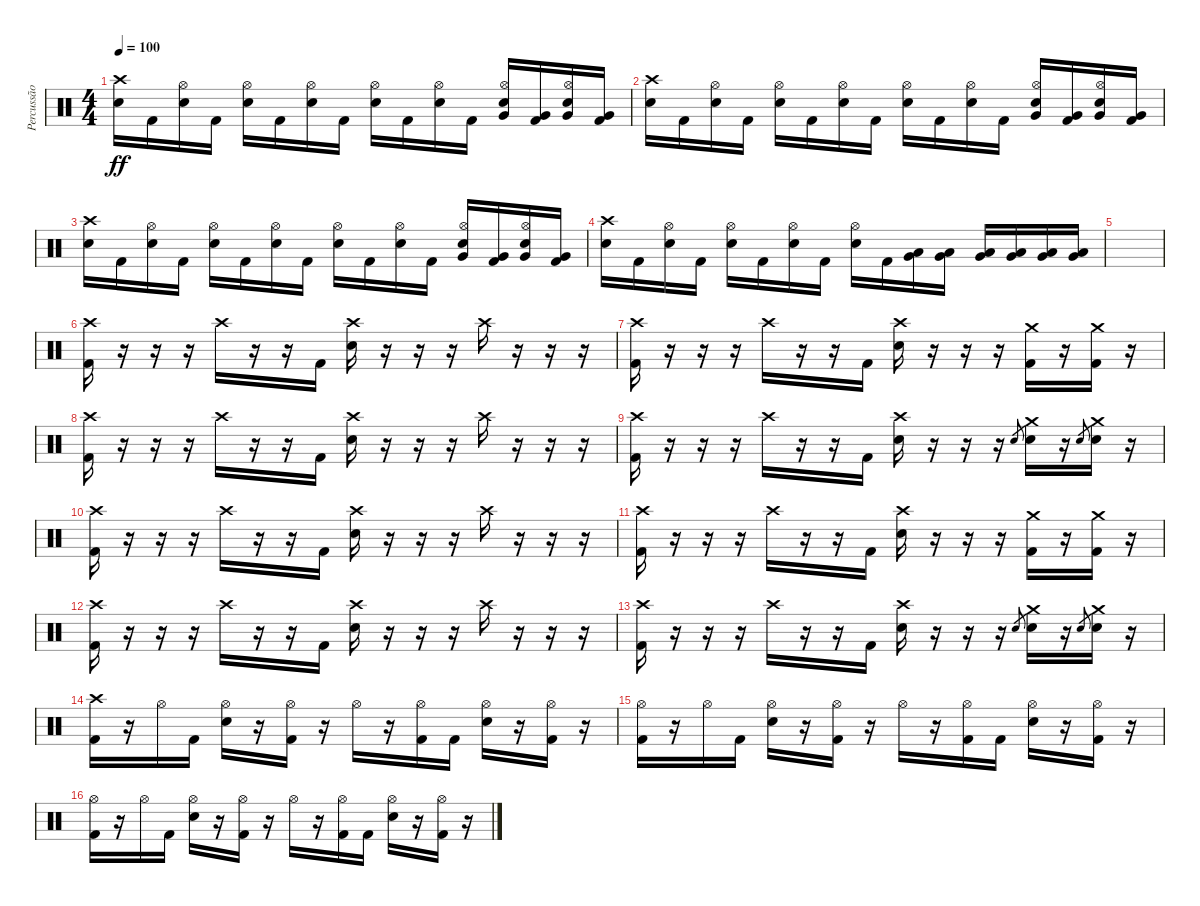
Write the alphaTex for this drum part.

\track ("Percussão" "Percussão") {instrument percussion}
\staff {score}
\articulation defaults
\ts (4 4)
\tempo 100
\clef neutral
\ks c
("Crash high (hit)" "Electric Snare (hit)").16{dy ff} "Kick (hit) 2".16 ("Hi-Hat (open)" "Electric Snare (hit)").16 "Kick (hit) 2".16 ("Hi-Hat (open)" "Electric Snare (hit)").16 "Kick (hit) 2".16 ("Hi-Hat (open)" "Electric Snare (hit)").16 "Kick (hit) 2".16 ("Hi-Hat (open)" "Electric Snare (hit)").16 "Kick (hit) 2".16 ("Hi-Hat (open)" "Electric Snare (hit)").16 "Kick (hit) 2".16 ("Hi-Hat (open)" "Electric Snare (hit)" "Very Low Tom (hit)").16 ("Kick (hit) 2" "Very Low Tom (hit)").16 ("Hi-Hat (open)" "Electric Snare (hit)" "Very Low Tom (hit)").16 ("Kick (hit) 2" "Very Low Tom (hit)").16 |
("Crash high (hit)" "Electric Snare (hit)").16 "Kick (hit) 2".16 ("Hi-Hat (open)" "Electric Snare (hit)").16 "Kick (hit) 2".16 ("Hi-Hat (open)" "Electric Snare (hit)").16 "Kick (hit) 2".16 ("Hi-Hat (open)" "Electric Snare (hit)").16 "Kick (hit) 2".16 ("Hi-Hat (open)" "Electric Snare (hit)").16 "Kick (hit) 2".16 ("Hi-Hat (open)" "Electric Snare (hit)").16 "Kick (hit) 2".16 ("Hi-Hat (open)" "Electric Snare (hit)" "Very Low Tom (hit)").16 ("Kick (hit) 2" "Very Low Tom (hit)").16 ("Hi-Hat (open)" "Electric Snare (hit)" "Very Low Tom (hit)").16 ("Kick (hit) 2" "Very Low Tom (hit)").16 |
("Crash high (hit)" "Electric Snare (hit)").16 "Kick (hit) 2".16 ("Hi-Hat (open)" "Electric Snare (hit)").16 "Kick (hit) 2".16 ("Hi-Hat (open)" "Electric Snare (hit)").16 "Kick (hit) 2".16 ("Hi-Hat (open)" "Electric Snare (hit)").16 "Kick (hit) 2".16 ("Hi-Hat (open)" "Electric Snare (hit)").16 "Kick (hit) 2".16 ("Hi-Hat (open)" "Electric Snare (hit)").16 "Kick (hit) 2".16 ("Hi-Hat (open)" "Electric Snare (hit)" "Very Low Tom (hit)").16 ("Kick (hit) 2" "Very Low Tom (hit)").16 ("Hi-Hat (open)" "Electric Snare (hit)" "Very Low Tom (hit)").16 ("Kick (hit) 2" "Very Low Tom (hit)").16 |
("Crash high (hit)" "Electric Snare (hit)").16 "Kick (hit) 2".16 ("Hi-Hat (open)" "Electric Snare (hit)").16 "Kick (hit) 2".16 ("Hi-Hat (open)" "Electric Snare (hit)").16 "Kick (hit) 2".16 ("Hi-Hat (open)" "Electric Snare (hit)").16 "Kick (hit) 2".16 ("Hi-Hat (open)" "Electric Snare (hit)").16 "Kick (hit) 2".16 ("Very Low Tom (hit)" "Low Tom (hit)").16 ("Very Low Tom (hit)" "Low Tom (hit)").16 ("Low Tom (hit)" "Very Low Tom (hit)").16 ("Low Tom (hit)" "Very Low Tom (hit)").16 ("Low Tom (hit)" "Very Low Tom (hit)").16 ("Low Tom (hit)" "Very Low Tom (hit)").16 |
|
("Crash high (hit)" "Kick (hit) 2").16 r.16 r.16 r.16 "Crash high (hit)".16 r.16 r.16 "Kick (hit) 2".16 ("Crash high (hit)" "Electric Snare (hit)").16 r.16 r.16 r.16 "Crash high (hit)".16 r.16 r.16 r.16 |
("Crash high (hit)" "Kick (hit) 2").16 r.16 r.16 r.16 "Crash high (hit)".16 r.16 r.16 "Kick (hit) 2".16 ("Crash high (hit)" "Electric Snare (hit)").16 r.16 r.16 r.16 ("Crash medium (hit)" "Kick (hit) 2").16 r.16 ("Crash medium (hit)" "Kick (hit) 2").16 r.16 |
("Crash high (hit)" "Kick (hit) 2").16 r.16 r.16 r.16 "Crash high (hit)".16 r.16 r.16 "Kick (hit) 2".16 ("Crash high (hit)" "Electric Snare (hit)").16 r.16 r.16 r.16 "Crash high (hit)".16 r.16 r.16 r.16 |
("Crash high (hit)" "Kick (hit) 2").16 r.16 r.16 r.16 "Crash high (hit)".16 r.16 r.16 "Kick (hit) 2".16 ("Crash high (hit)" "Electric Snare (hit)").16 r.16 r.16 r.16 "Electric Snare (hit)".8{gr} ("Crash medium (hit)" "Electric Snare (hit)").16 r.16 "Electric Snare (hit)".8{gr} ("Crash medium (hit)" "Electric Snare (hit)").16 r.16 |
("Crash high (hit)" "Kick (hit) 2").16 r.16 r.16 r.16 "Crash high (hit)".16 r.16 r.16 "Kick (hit) 2".16 ("Crash high (hit)" "Electric Snare (hit)").16 r.16 r.16 r.16 "Crash high (hit)".16 r.16 r.16 r.16 |
("Crash high (hit)" "Kick (hit) 2").16 r.16 r.16 r.16 "Crash high (hit)".16 r.16 r.16 "Kick (hit) 2".16 ("Crash high (hit)" "Electric Snare (hit)").16 r.16 r.16 r.16 ("Crash medium (hit)" "Kick (hit) 2").16 r.16 ("Crash medium (hit)" "Kick (hit) 2").16 r.16 |
("Crash high (hit)" "Kick (hit) 2").16 r.16 r.16 r.16 "Crash high (hit)".16 r.16 r.16 "Kick (hit) 2".16 ("Crash high (hit)" "Electric Snare (hit)").16 r.16 r.16 r.16 "Crash high (hit)".16 r.16 r.16 r.16 |
("Crash high (hit)" "Kick (hit) 2").16 r.16 r.16 r.16 "Crash high (hit)".16 r.16 r.16 "Kick (hit) 2".16 ("Crash high (hit)" "Electric Snare (hit)").16 r.16 r.16 r.16 "Electric Snare (hit)".8{gr} ("Crash medium (hit)" "Electric Snare (hit)").16 r.16 "Electric Snare (hit)".8{gr} ("Crash medium (hit)" "Electric Snare (hit)").16 r.16 |
("Crash high (hit)" "Kick (hit) 2").16 r.16 "Hi-Hat (open)".16 "Kick (hit) 2".16 ("Hi-Hat (open)" "Electric Snare (hit)").16 r.16 ("Hi-Hat (open)" "Kick (hit) 2").16 r.16 "Hi-Hat (open)".16 r.16 ("Hi-Hat (open)" "Kick (hit) 2").16 "Kick (hit) 2".16 ("Hi-Hat (open)" "Electric Snare (hit)").16 r.16 ("Hi-Hat (open)" "Kick (hit) 2").16 r.16 |
("Hi-Hat (open)" "Kick (hit) 2").16 r.16 "Hi-Hat (open)".16 "Kick (hit) 2".16 ("Hi-Hat (open)" "Electric Snare (hit)").16 r.16 ("Hi-Hat (open)" "Kick (hit) 2").16 r.16 "Hi-Hat (open)".16 r.16 ("Hi-Hat (open)" "Kick (hit) 2").16 "Kick (hit) 2".16 ("Hi-Hat (open)" "Electric Snare (hit)").16 r.16 ("Hi-Hat (open)" "Kick (hit) 2").16 r.16 |
("Hi-Hat (open)" "Kick (hit) 2").16 r.16 "Hi-Hat (open)".16 "Kick (hit) 2".16 ("Hi-Hat (open)" "Electric Snare (hit)").16 r.16 ("Hi-Hat (open)" "Kick (hit) 2").16 r.16 "Hi-Hat (open)".16 r.16 ("Hi-Hat (open)" "Kick (hit) 2").16 "Kick (hit) 2".16 ("Hi-Hat (open)" "Electric Snare (hit)").16 r.16 ("Hi-Hat (open)" "Kick (hit) 2").16 r.16
